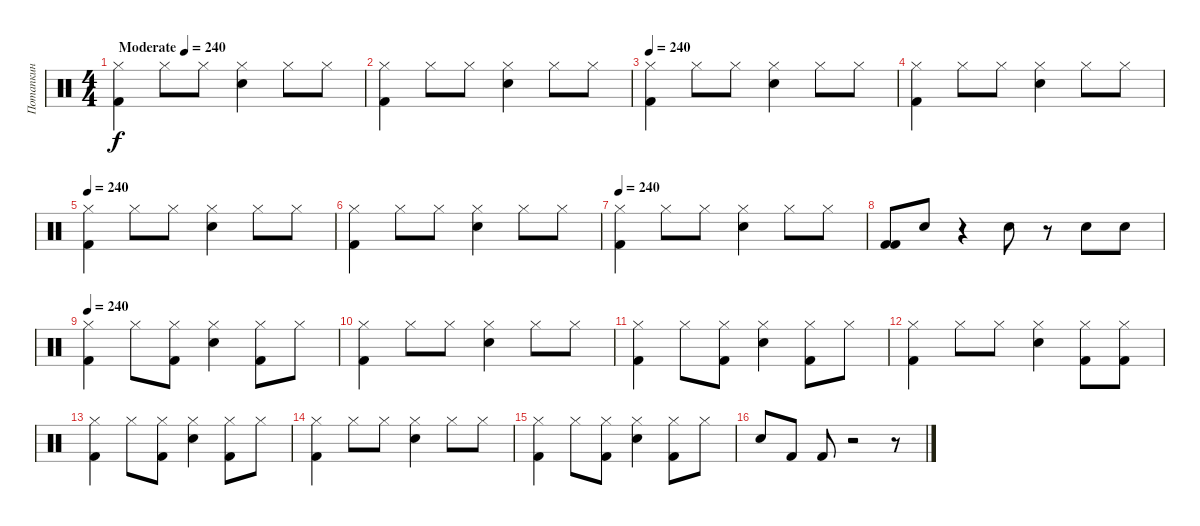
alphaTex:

\track ("Потапкин" "Потапкин") {instrument percussion}
\staff {score}
\articulation defaults
\ts (4 4)
\tempo (240 "Moderate")
\clef neutral
\ks c
("Hi-Hat (closed)" "Kick (hit) 2").4{dy f} "Hi-Hat (closed)".8 "Hi-Hat (closed)".8 ("Hi-Hat (closed)" "Electric Snare (hit)").4 "Hi-Hat (closed)".8 "Hi-Hat (closed)".8 |
("Hi-Hat (closed)" "Kick (hit) 2").4 "Hi-Hat (closed)".8 "Hi-Hat (closed)".8 ("Hi-Hat (closed)" "Electric Snare (hit)").4 "Hi-Hat (closed)".8 "Hi-Hat (closed)".8 |
\tempo 240
("Hi-Hat (closed)" "Kick (hit) 2").4 "Hi-Hat (closed)".8 "Hi-Hat (closed)".8 ("Hi-Hat (closed)" "Electric Snare (hit)").4 "Hi-Hat (closed)".8 "Hi-Hat (closed)".8 |
("Hi-Hat (closed)" "Kick (hit) 2").4 "Hi-Hat (closed)".8 "Hi-Hat (closed)".8 ("Hi-Hat (closed)" "Electric Snare (hit)").4 "Hi-Hat (closed)".8 "Hi-Hat (closed)".8 |
\tempo 240
("Hi-Hat (closed)" "Kick (hit) 2").4 "Hi-Hat (closed)".8 "Hi-Hat (closed)".8 ("Hi-Hat (closed)" "Electric Snare (hit)").4 "Hi-Hat (closed)".8 "Hi-Hat (closed)".8 |
("Hi-Hat (closed)" "Kick (hit) 2").4 "Hi-Hat (closed)".8 "Hi-Hat (closed)".8 ("Hi-Hat (closed)" "Electric Snare (hit)").4 "Hi-Hat (closed)".8 "Hi-Hat (closed)".8 |
\tempo 240
("Hi-Hat (closed)" "Kick (hit) 2").4 "Hi-Hat (closed)".8 "Hi-Hat (closed)".8 ("Hi-Hat (closed)" "Electric Snare (hit)").4 "Hi-Hat (closed)".8 "Hi-Hat (closed)".8 |
("Kick (hit) 2" "Kick (hit) 2").8 "Electric Snare (hit)".8 r.4 "Electric Snare (hit)".8 r.8 "Electric Snare (hit)".8 "Electric Snare (hit)".8 |
\tempo 240
("Hi-Hat (closed)" "Kick (hit) 2").4 "Hi-Hat (closed)".8 ("Hi-Hat (closed)" "Kick (hit) 2").8 ("Hi-Hat (closed)" "Electric Snare (hit)").4 ("Kick (hit) 2" "Hi-Hat (closed)").8 "Hi-Hat (closed)".8 |
("Hi-Hat (closed)" "Kick (hit) 2").4 "Hi-Hat (closed)".8 "Hi-Hat (closed)".8 ("Hi-Hat (closed)" "Electric Snare (hit)").4 "Hi-Hat (closed)".8 "Hi-Hat (closed)".8 |
("Hi-Hat (closed)" "Kick (hit) 2").4 "Hi-Hat (closed)".8 ("Hi-Hat (closed)" "Kick (hit) 2").8 ("Hi-Hat (closed)" "Electric Snare (hit)").4 ("Kick (hit) 2" "Hi-Hat (closed)").8 "Hi-Hat (closed)".8 |
("Hi-Hat (closed)" "Kick (hit) 2").4 "Hi-Hat (closed)".8 "Hi-Hat (closed)".8 ("Hi-Hat (closed)" "Electric Snare (hit)").4 ("Kick (hit) 2" "Hi-Hat (closed)").8 ("Hi-Hat (closed)" "Kick (hit) 2").8 |
("Hi-Hat (closed)" "Kick (hit) 2").4 "Hi-Hat (closed)".8 ("Hi-Hat (closed)" "Kick (hit) 2").8 ("Hi-Hat (closed)" "Electric Snare (hit)").4 ("Kick (hit) 2" "Hi-Hat (closed)").8 "Hi-Hat (closed)".8 |
("Hi-Hat (closed)" "Kick (hit) 2").4 "Hi-Hat (closed)".8 "Hi-Hat (closed)".8 ("Hi-Hat (closed)" "Electric Snare (hit)").4 "Hi-Hat (closed)".8 "Hi-Hat (closed)".8 |
("Hi-Hat (closed)" "Kick (hit) 2").4 "Hi-Hat (closed)".8 ("Hi-Hat (closed)" "Kick (hit) 2").8 ("Hi-Hat (closed)" "Electric Snare (hit)").4 ("Kick (hit) 2" "Hi-Hat (closed)").8 "Hi-Hat (closed)".8 |
"Electric Snare (hit)".8 "Kick (hit) 2".8 "Kick (hit) 2".8 r.2 r.8
